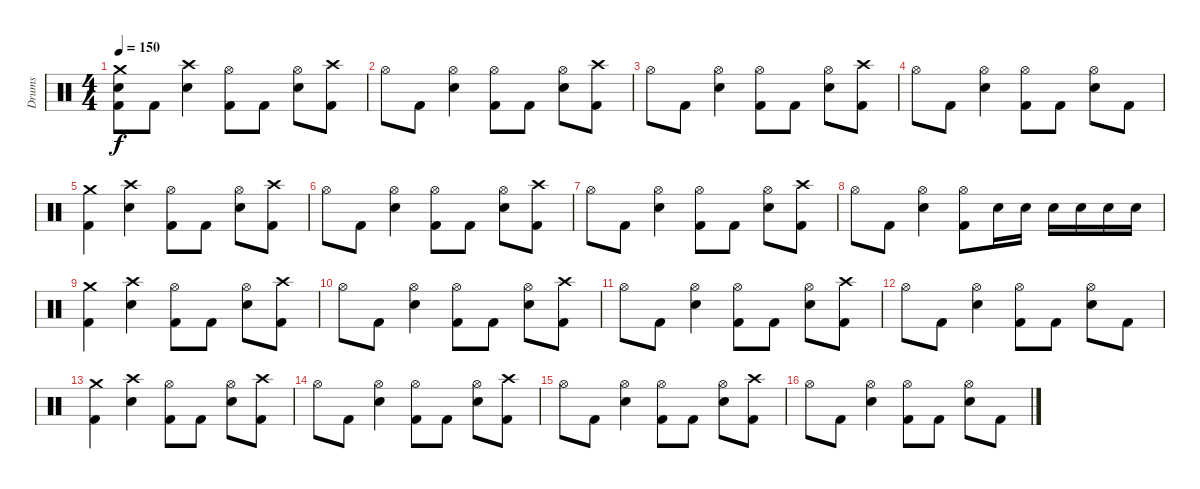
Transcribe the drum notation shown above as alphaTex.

\track ("Drums" "Drums") {instrument percussion}
\staff {score}
\articulation defaults
\ts (4 4)
\section ("" "")
\tempo 150
\clef neutral
\ks c
("Crash medium (hit)" "Snare (hit) 2" "Kick (hit) 2").8{dy f} "Kick (hit) 2".8 ("Crash high (hit)" "Snare (hit) 2").4 ("Hi-Hat (open)" "Kick (hit) 2").8 "Kick (hit) 2".8 ("Hi-Hat (open)" "Snare (hit) 2").8 ("Crash high (hit)" "Kick (hit) 2").8 |
"Hi-Hat (open)".8 "Kick (hit) 2".8 ("Hi-Hat (open)" "Snare (hit) 2").4 ("Hi-Hat (open)" "Kick (hit) 2").8 "Kick (hit) 2".8 ("Hi-Hat (open)" "Snare (hit) 2").8 ("Crash high (hit)" "Kick (hit) 2").8 |
"Hi-Hat (open)".8 "Kick (hit) 2".8 ("Hi-Hat (open)" "Snare (hit) 2").4 ("Hi-Hat (open)" "Kick (hit) 2").8 "Kick (hit) 2".8 ("Hi-Hat (open)" "Snare (hit) 2").8 ("Crash high (hit)" "Kick (hit) 2").8 |
"Hi-Hat (open)".8 "Kick (hit) 2".8 ("Hi-Hat (open)" "Snare (hit) 2").4 ("Hi-Hat (open)" "Kick (hit) 2").8 "Kick (hit) 2".8 ("Hi-Hat (open)" "Snare (hit) 2").8 "Kick (hit) 2".8 |
\section ("" "")
("Crash medium (hit)" "Kick (hit) 2").4 ("Crash high (hit)" "Snare (hit) 2").4 ("Hi-Hat (open)" "Kick (hit) 2").8 "Kick (hit) 2".8 ("Hi-Hat (open)" "Snare (hit) 2").8 ("Crash high (hit)" "Kick (hit) 2").8 |
"Hi-Hat (open)".8 "Kick (hit) 2".8 ("Hi-Hat (open)" "Snare (hit) 2").4 ("Hi-Hat (open)" "Kick (hit) 2").8 "Kick (hit) 2".8 ("Hi-Hat (open)" "Snare (hit) 2").8 ("Crash high (hit)" "Kick (hit) 2").8 |
"Hi-Hat (open)".8 "Kick (hit) 2".8 ("Hi-Hat (open)" "Snare (hit) 2").4 ("Hi-Hat (open)" "Kick (hit) 2").8 "Kick (hit) 2".8 ("Hi-Hat (open)" "Snare (hit) 2").8 ("Crash high (hit)" "Kick (hit) 2").8 |
"Hi-Hat (open)".8 "Kick (hit) 2".8 ("Hi-Hat (open)" "Snare (hit) 2").4 ("Hi-Hat (open)" "Kick (hit) 2").8 "Snare (hit) 2".16 "Snare (hit) 2".16 "Snare (hit) 2".16 "Snare (hit) 2".16 "Snare (hit) 2".16 "Snare (hit) 2".16 |
\section ("" "")
("Crash medium (hit)" "Kick (hit) 2").4 ("Crash high (hit)" "Snare (hit) 2").4 ("Hi-Hat (open)" "Kick (hit) 2").8 "Kick (hit) 2".8 ("Hi-Hat (open)" "Snare (hit) 2").8 ("Crash high (hit)" "Kick (hit) 2").8 |
"Hi-Hat (open)".8 "Kick (hit) 2".8 ("Hi-Hat (open)" "Snare (hit) 2").4 ("Hi-Hat (open)" "Kick (hit) 2").8 "Kick (hit) 2".8 ("Hi-Hat (open)" "Snare (hit) 2").8 ("Crash high (hit)" "Kick (hit) 2").8 |
"Hi-Hat (open)".8 "Kick (hit) 2".8 ("Hi-Hat (open)" "Snare (hit) 2").4 ("Hi-Hat (open)" "Kick (hit) 2").8 "Kick (hit) 2".8 ("Hi-Hat (open)" "Snare (hit) 2").8 ("Crash high (hit)" "Kick (hit) 2").8 |
"Hi-Hat (open)".8 "Kick (hit) 2".8 ("Hi-Hat (open)" "Snare (hit) 2").4 ("Hi-Hat (open)" "Kick (hit) 2").8 "Kick (hit) 2".8 ("Hi-Hat (open)" "Snare (hit) 2").8 "Kick (hit) 2".8 |
\section ("" "")
("Crash medium (hit)" "Kick (hit) 2").4 ("Crash high (hit)" "Snare (hit) 2").4 ("Hi-Hat (open)" "Kick (hit) 2").8 "Kick (hit) 2".8 ("Hi-Hat (open)" "Snare (hit) 2").8 ("Crash high (hit)" "Kick (hit) 2").8 |
"Hi-Hat (open)".8 "Kick (hit) 2".8 ("Hi-Hat (open)" "Snare (hit) 2").4 ("Hi-Hat (open)" "Kick (hit) 2").8 "Kick (hit) 2".8 ("Hi-Hat (open)" "Snare (hit) 2").8 ("Crash high (hit)" "Kick (hit) 2").8 |
"Hi-Hat (open)".8 "Kick (hit) 2".8 ("Hi-Hat (open)" "Snare (hit) 2").4 ("Hi-Hat (open)" "Kick (hit) 2").8 "Kick (hit) 2".8 ("Hi-Hat (open)" "Snare (hit) 2").8 ("Crash high (hit)" "Kick (hit) 2").8 |
"Hi-Hat (open)".8 "Kick (hit) 2".8 ("Hi-Hat (open)" "Snare (hit) 2").4 ("Hi-Hat (open)" "Kick (hit) 2").8 "Kick (hit) 2".8 ("Hi-Hat (open)" "Snare (hit) 2").8 "Kick (hit) 2".8
